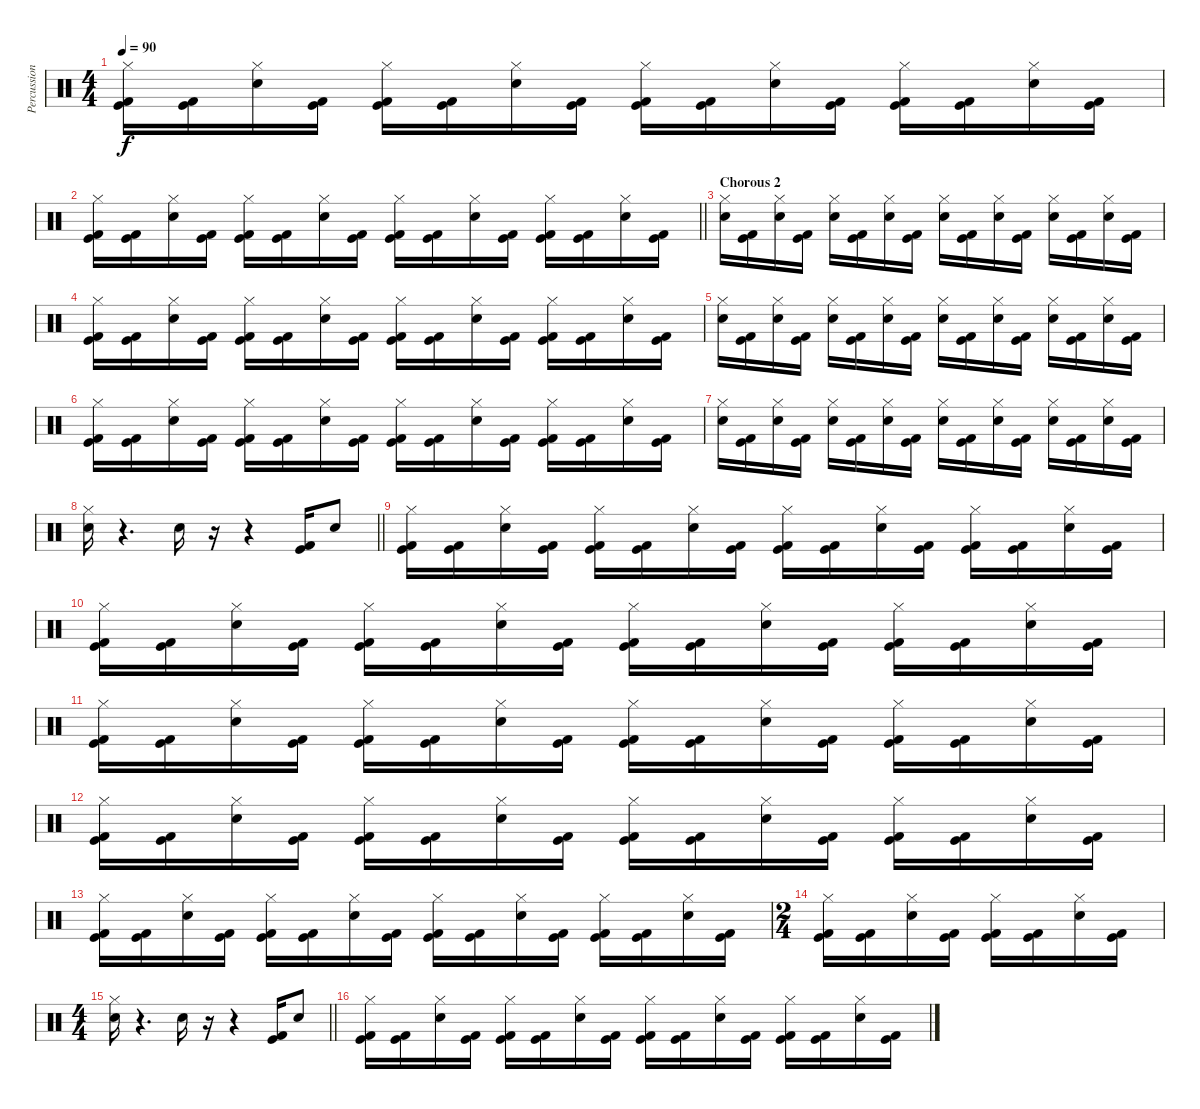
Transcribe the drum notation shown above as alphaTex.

\track ("Percussion" "Percussion") {instrument percussion}
\staff {score}
\articulation defaults
\ts (4 4)
\tempo 90
\clef neutral
\ks c
("Hi-Hat (closed)" "Kick (hit)" "Kick (hit) 2").16{dy f} ("Kick (hit)" "Kick (hit) 2").16 ("Hi-Hat (closed)" "Electric Snare (hit)").16 ("Kick (hit)" "Kick (hit) 2").16 ("Hi-Hat (closed)" "Kick (hit)" "Kick (hit) 2").16 ("Kick (hit)" "Kick (hit) 2").16 ("Hi-Hat (closed)" "Electric Snare (hit)").16 ("Kick (hit)" "Kick (hit) 2").16 ("Hi-Hat (closed)" "Kick (hit)" "Kick (hit) 2").16 ("Kick (hit)" "Kick (hit) 2").16 ("Hi-Hat (closed)" "Electric Snare (hit)").16 ("Kick (hit)" "Kick (hit) 2").16 ("Hi-Hat (closed)" "Kick (hit)" "Kick (hit) 2").16 ("Kick (hit)" "Kick (hit) 2").16 ("Hi-Hat (closed)" "Electric Snare (hit)").16 ("Kick (hit)" "Kick (hit) 2").16 |
\barLineRight lightlight
("Hi-Hat (closed)" "Kick (hit)" "Kick (hit) 2").16 ("Kick (hit)" "Kick (hit) 2").16 ("Hi-Hat (closed)" "Electric Snare (hit)").16 ("Kick (hit)" "Kick (hit) 2").16 ("Hi-Hat (closed)" "Kick (hit)" "Kick (hit) 2").16 ("Kick (hit)" "Kick (hit) 2").16 ("Hi-Hat (closed)" "Electric Snare (hit)").16 ("Kick (hit)" "Kick (hit) 2").16 ("Hi-Hat (closed)" "Kick (hit)" "Kick (hit) 2").16 ("Kick (hit)" "Kick (hit) 2").16 ("Hi-Hat (closed)" "Electric Snare (hit)").16 ("Kick (hit)" "Kick (hit) 2").16 ("Hi-Hat (closed)" "Kick (hit)" "Kick (hit) 2").16 ("Kick (hit)" "Kick (hit) 2").16 ("Hi-Hat (closed)" "Electric Snare (hit)").16 ("Kick (hit)" "Kick (hit) 2").16 |
\section ("" "Chorous 2")
("Hi-Hat (closed)" "Electric Snare (hit)").16 ("Kick (hit)" "Kick (hit) 2").16 ("Hi-Hat (closed)" "Electric Snare (hit)").16 ("Kick (hit)" "Kick (hit) 2").16 ("Hi-Hat (closed)" "Electric Snare (hit)").16 ("Kick (hit)" "Kick (hit) 2").16 ("Hi-Hat (closed)" "Electric Snare (hit)").16 ("Kick (hit)" "Kick (hit) 2").16 ("Hi-Hat (closed)" "Electric Snare (hit)").16 ("Kick (hit)" "Kick (hit) 2").16 ("Hi-Hat (closed)" "Electric Snare (hit)").16 ("Kick (hit)" "Kick (hit) 2").16 ("Hi-Hat (closed)" "Electric Snare (hit)").16 ("Kick (hit)" "Kick (hit) 2").16 ("Hi-Hat (closed)" "Electric Snare (hit)").16 ("Kick (hit)" "Kick (hit) 2").16 |
("Hi-Hat (closed)" "Kick (hit)" "Kick (hit) 2").16 ("Kick (hit)" "Kick (hit) 2").16 ("Hi-Hat (closed)" "Electric Snare (hit)").16 ("Kick (hit)" "Kick (hit) 2").16 ("Hi-Hat (closed)" "Kick (hit)" "Kick (hit) 2").16 ("Kick (hit)" "Kick (hit) 2").16 ("Hi-Hat (closed)" "Electric Snare (hit)").16 ("Kick (hit)" "Kick (hit) 2").16 ("Hi-Hat (closed)" "Kick (hit)" "Kick (hit) 2").16 ("Kick (hit)" "Kick (hit) 2").16 ("Hi-Hat (closed)" "Electric Snare (hit)").16 ("Kick (hit)" "Kick (hit) 2").16 ("Hi-Hat (closed)" "Kick (hit)" "Kick (hit) 2").16 ("Kick (hit)" "Kick (hit) 2").16 ("Hi-Hat (closed)" "Electric Snare (hit)").16 ("Kick (hit)" "Kick (hit) 2").16 |
("Hi-Hat (closed)" "Electric Snare (hit)").16 ("Kick (hit)" "Kick (hit) 2").16 ("Hi-Hat (closed)" "Electric Snare (hit)").16 ("Kick (hit)" "Kick (hit) 2").16 ("Hi-Hat (closed)" "Electric Snare (hit)").16 ("Kick (hit)" "Kick (hit) 2").16 ("Hi-Hat (closed)" "Electric Snare (hit)").16 ("Kick (hit)" "Kick (hit) 2").16 ("Hi-Hat (closed)" "Electric Snare (hit)").16 ("Kick (hit)" "Kick (hit) 2").16 ("Hi-Hat (closed)" "Electric Snare (hit)").16 ("Kick (hit)" "Kick (hit) 2").16 ("Hi-Hat (closed)" "Electric Snare (hit)").16 ("Kick (hit)" "Kick (hit) 2").16 ("Hi-Hat (closed)" "Electric Snare (hit)").16 ("Kick (hit)" "Kick (hit) 2").16 |
("Hi-Hat (closed)" "Kick (hit)" "Kick (hit) 2").16 ("Kick (hit)" "Kick (hit) 2").16 ("Hi-Hat (closed)" "Electric Snare (hit)").16 ("Kick (hit)" "Kick (hit) 2").16 ("Hi-Hat (closed)" "Kick (hit)" "Kick (hit) 2").16 ("Kick (hit)" "Kick (hit) 2").16 ("Hi-Hat (closed)" "Electric Snare (hit)").16 ("Kick (hit)" "Kick (hit) 2").16 ("Hi-Hat (closed)" "Kick (hit)" "Kick (hit) 2").16 ("Kick (hit)" "Kick (hit) 2").16 ("Hi-Hat (closed)" "Electric Snare (hit)").16 ("Kick (hit)" "Kick (hit) 2").16 ("Hi-Hat (closed)" "Kick (hit)" "Kick (hit) 2").16 ("Kick (hit)" "Kick (hit) 2").16 ("Hi-Hat (closed)" "Electric Snare (hit)").16 ("Kick (hit)" "Kick (hit) 2").16 |
("Hi-Hat (closed)" "Electric Snare (hit)").16 ("Kick (hit)" "Kick (hit) 2").16 ("Hi-Hat (closed)" "Electric Snare (hit)").16 ("Kick (hit)" "Kick (hit) 2").16 ("Hi-Hat (closed)" "Electric Snare (hit)").16 ("Kick (hit)" "Kick (hit) 2").16 ("Hi-Hat (closed)" "Electric Snare (hit)").16 ("Kick (hit)" "Kick (hit) 2").16 ("Hi-Hat (closed)" "Electric Snare (hit)").16 ("Kick (hit)" "Kick (hit) 2").16 ("Hi-Hat (closed)" "Electric Snare (hit)").16 ("Kick (hit)" "Kick (hit) 2").16 ("Hi-Hat (closed)" "Electric Snare (hit)").16 ("Kick (hit)" "Kick (hit) 2").16 ("Hi-Hat (closed)" "Electric Snare (hit)").16 ("Kick (hit)" "Kick (hit) 2").16 |
\barLineRight lightlight
("Hi-Hat (closed)" "Electric Snare (hit)").16 r.4{d} "Electric Snare (hit)".16 r.16 r.4 ("Kick (hit)" "Kick (hit) 2").16 "Electric Snare (hit)".8 |
\section ("" "")
("Hi-Hat (closed)" "Kick (hit)" "Kick (hit) 2").16 ("Kick (hit)" "Kick (hit) 2").16 ("Hi-Hat (closed)" "Electric Snare (hit)").16 ("Kick (hit)" "Kick (hit) 2").16 ("Hi-Hat (closed)" "Kick (hit)" "Kick (hit) 2").16 ("Kick (hit)" "Kick (hit) 2").16 ("Hi-Hat (closed)" "Electric Snare (hit)").16 ("Kick (hit)" "Kick (hit) 2").16 ("Hi-Hat (closed)" "Kick (hit)" "Kick (hit) 2").16 ("Kick (hit)" "Kick (hit) 2").16 ("Hi-Hat (closed)" "Electric Snare (hit)").16 ("Kick (hit)" "Kick (hit) 2").16 ("Hi-Hat (closed)" "Kick (hit)" "Kick (hit) 2").16 ("Kick (hit)" "Kick (hit) 2").16 ("Hi-Hat (closed)" "Electric Snare (hit)").16 ("Kick (hit)" "Kick (hit) 2").16 |
("Hi-Hat (closed)" "Kick (hit)" "Kick (hit) 2").16 ("Kick (hit)" "Kick (hit) 2").16 ("Hi-Hat (closed)" "Electric Snare (hit)").16 ("Kick (hit)" "Kick (hit) 2").16 ("Hi-Hat (closed)" "Kick (hit)" "Kick (hit) 2").16 ("Kick (hit)" "Kick (hit) 2").16 ("Hi-Hat (closed)" "Electric Snare (hit)").16 ("Kick (hit)" "Kick (hit) 2").16 ("Hi-Hat (closed)" "Kick (hit)" "Kick (hit) 2").16 ("Kick (hit)" "Kick (hit) 2").16 ("Hi-Hat (closed)" "Electric Snare (hit)").16 ("Kick (hit)" "Kick (hit) 2").16 ("Hi-Hat (closed)" "Kick (hit)" "Kick (hit) 2").16 ("Kick (hit)" "Kick (hit) 2").16 ("Hi-Hat (closed)" "Electric Snare (hit)").16 ("Kick (hit)" "Kick (hit) 2").16 |
("Hi-Hat (closed)" "Kick (hit)" "Kick (hit) 2").16 ("Kick (hit)" "Kick (hit) 2").16 ("Hi-Hat (closed)" "Electric Snare (hit)").16 ("Kick (hit)" "Kick (hit) 2").16 ("Hi-Hat (closed)" "Kick (hit)" "Kick (hit) 2").16 ("Kick (hit)" "Kick (hit) 2").16 ("Hi-Hat (closed)" "Electric Snare (hit)").16 ("Kick (hit)" "Kick (hit) 2").16 ("Hi-Hat (closed)" "Kick (hit)" "Kick (hit) 2").16 ("Kick (hit)" "Kick (hit) 2").16 ("Hi-Hat (closed)" "Electric Snare (hit)").16 ("Kick (hit)" "Kick (hit) 2").16 ("Hi-Hat (closed)" "Kick (hit)" "Kick (hit) 2").16 ("Kick (hit)" "Kick (hit) 2").16 ("Hi-Hat (closed)" "Electric Snare (hit)").16 ("Kick (hit)" "Kick (hit) 2").16 |
("Hi-Hat (closed)" "Kick (hit)" "Kick (hit) 2").16 ("Kick (hit)" "Kick (hit) 2").16 ("Hi-Hat (closed)" "Electric Snare (hit)").16 ("Kick (hit)" "Kick (hit) 2").16 ("Hi-Hat (closed)" "Kick (hit)" "Kick (hit) 2").16 ("Kick (hit)" "Kick (hit) 2").16 ("Hi-Hat (closed)" "Electric Snare (hit)").16 ("Kick (hit)" "Kick (hit) 2").16 ("Hi-Hat (closed)" "Kick (hit)" "Kick (hit) 2").16 ("Kick (hit)" "Kick (hit) 2").16 ("Hi-Hat (closed)" "Electric Snare (hit)").16 ("Kick (hit)" "Kick (hit) 2").16 ("Hi-Hat (closed)" "Kick (hit)" "Kick (hit) 2").16 ("Kick (hit)" "Kick (hit) 2").16 ("Hi-Hat (closed)" "Electric Snare (hit)").16 ("Kick (hit)" "Kick (hit) 2").16 |
("Hi-Hat (closed)" "Kick (hit)" "Kick (hit) 2").16 ("Kick (hit)" "Kick (hit) 2").16 ("Hi-Hat (closed)" "Electric Snare (hit)").16 ("Kick (hit)" "Kick (hit) 2").16 ("Hi-Hat (closed)" "Kick (hit)" "Kick (hit) 2").16 ("Kick (hit)" "Kick (hit) 2").16 ("Hi-Hat (closed)" "Electric Snare (hit)").16 ("Kick (hit)" "Kick (hit) 2").16 ("Hi-Hat (closed)" "Kick (hit)" "Kick (hit) 2").16 ("Kick (hit)" "Kick (hit) 2").16 ("Hi-Hat (closed)" "Electric Snare (hit)").16 ("Kick (hit)" "Kick (hit) 2").16 ("Hi-Hat (closed)" "Kick (hit)" "Kick (hit) 2").16 ("Kick (hit)" "Kick (hit) 2").16 ("Hi-Hat (closed)" "Electric Snare (hit)").16 ("Kick (hit)" "Kick (hit) 2").16 |
\ts (2 4)
("Hi-Hat (closed)" "Kick (hit)" "Kick (hit) 2").16 ("Kick (hit)" "Kick (hit) 2").16 ("Hi-Hat (closed)" "Electric Snare (hit)").16 ("Kick (hit)" "Kick (hit) 2").16 ("Hi-Hat (closed)" "Kick (hit)" "Kick (hit) 2").16 ("Kick (hit)" "Kick (hit) 2").16 ("Hi-Hat (closed)" "Electric Snare (hit)").16 ("Kick (hit)" "Kick (hit) 2").16 |
\ts (4 4)
\barLineRight lightlight
("Hi-Hat (closed)" "Electric Snare (hit)").16 r.4{d} "Electric Snare (hit)".16 r.16 r.4 ("Kick (hit)" "Kick (hit) 2").16 "Electric Snare (hit)".8 |
\section ("" "")
("Hi-Hat (closed)" "Kick (hit)" "Kick (hit) 2").16 ("Kick (hit)" "Kick (hit) 2").16 ("Hi-Hat (closed)" "Electric Snare (hit)").16 ("Kick (hit)" "Kick (hit) 2").16 ("Hi-Hat (closed)" "Kick (hit)" "Kick (hit) 2").16 ("Kick (hit)" "Kick (hit) 2").16 ("Hi-Hat (closed)" "Electric Snare (hit)").16 ("Kick (hit)" "Kick (hit) 2").16 ("Hi-Hat (closed)" "Kick (hit)" "Kick (hit) 2").16 ("Kick (hit)" "Kick (hit) 2").16 ("Hi-Hat (closed)" "Electric Snare (hit)").16 ("Kick (hit)" "Kick (hit) 2").16 ("Hi-Hat (closed)" "Kick (hit)" "Kick (hit) 2").16 ("Kick (hit)" "Kick (hit) 2").16 ("Hi-Hat (closed)" "Electric Snare (hit)").16 ("Kick (hit)" "Kick (hit) 2").16
